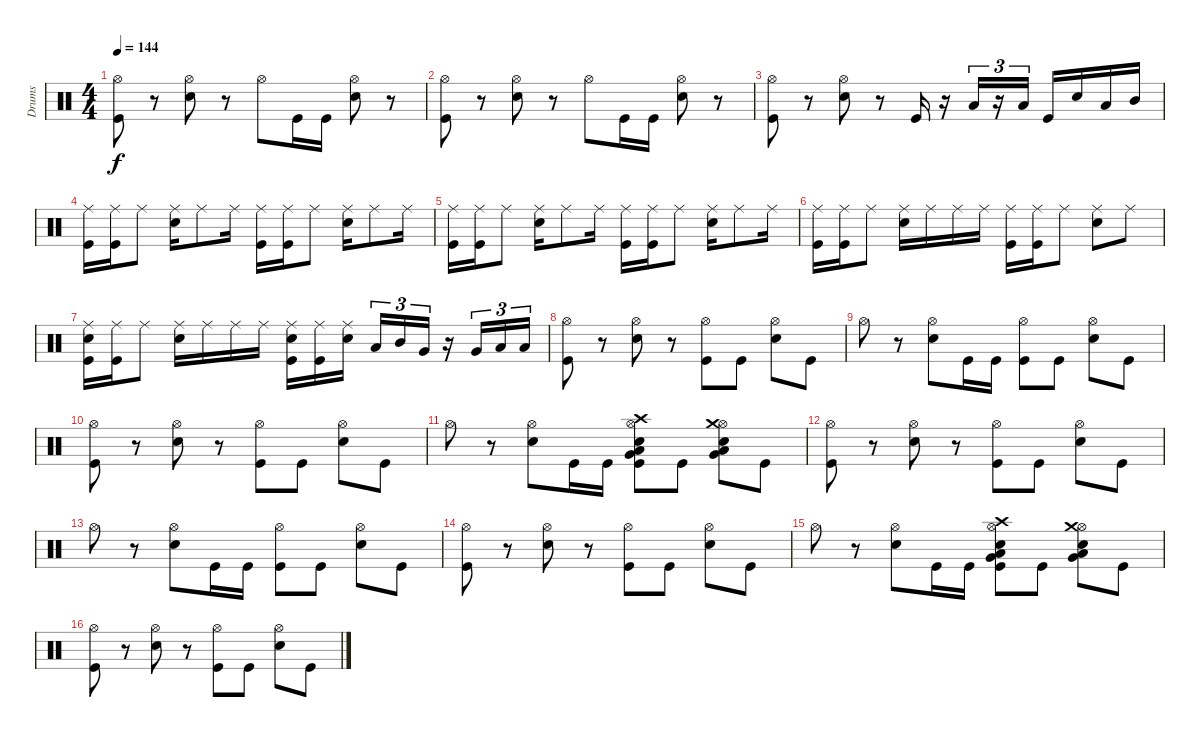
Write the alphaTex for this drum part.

\track ("Drums" "Drums") {instrument percussion}
\staff {score}
\articulation defaults
\ts (4 4)
\tempo 144
\clef neutral
\ks c
("Hi-Hat (open)" "Kick (hit)").8{dy f} r.8 ("Hi-Hat (open)" "Snare (hit) 2").8 r.8 "Hi-Hat (open)".8 "Kick (hit)".16 "Kick (hit)".16 ("Hi-Hat (open)" "Snare (hit) 2").8 r.8 |
("Hi-Hat (open)" "Kick (hit)").8 r.8 ("Hi-Hat (open)" "Snare (hit) 2").8 r.8 "Hi-Hat (open)".8 "Kick (hit)".16 "Kick (hit)".16 ("Hi-Hat (open)" "Snare (hit) 2").8 r.8 |
("Hi-Hat (open)" "Kick (hit)").8 r.8 ("Hi-Hat (open)" "Snare (hit) 2").8 r.8 "Kick (hit)".16 r.16 "Low Tom (hit)".16{tu (3 2)} r.16{tu (3 2)} "Low Floor Tom (hit)".16{tu (3 2)} "Kick (hit)".16 "Snare (hit) 2".16 "Low Tom (hit)".16 "Mid Tom (hit)".16 |
("Ride (middle)" "Kick (hit)").16 ("Ride (middle)" "Kick (hit)").16 "Ride (middle)".8 ("Ride (middle)" "Snare (hit) 2").16 "Ride (middle)".8 "Ride (middle)".16 ("Ride (middle)" "Kick (hit)").16 ("Ride (middle)" "Kick (hit)").16 "Ride (middle)".8 ("Ride (middle)" "Snare (hit) 2").16 "Ride (middle)".8 "Ride (middle)".16 |
("Ride (middle)" "Kick (hit)").16 ("Ride (middle)" "Kick (hit)").16 "Ride (middle)".8 ("Ride (middle)" "Snare (hit) 2").16 "Ride (middle)".8 "Ride (middle)".16 ("Ride (middle)" "Kick (hit)").16 ("Ride (middle)" "Kick (hit)").16 "Ride (middle)".8 ("Ride (middle)" "Snare (hit) 2").16 "Ride (middle)".8 "Ride (middle)".16 |
("Ride (middle)" "Kick (hit)").16 ("Ride (middle)" "Kick (hit)").16 "Ride (middle)".8 ("Ride (middle)" "Snare (hit) 2").16 "Ride (middle)".16 "Ride (middle)".16 "Ride (middle)".16 ("Ride (middle)" "Kick (hit)").16 ("Ride (middle)" "Kick (hit)").16 "Ride (middle)".8 ("Ride (middle)" "Snare (hit) 2").8 "Ride (middle)".8 |
("Ride (middle)" "Snare (hit) 2" "Kick (hit)").16 ("Ride (middle)" "Kick (hit)").16 "Ride (middle)".8 ("Ride (middle)" "Snare (hit) 2").16 "Ride (middle)".16 "Ride (middle)".16 "Ride (middle)".16 ("Ride (middle)" "Snare (hit) 2" "Kick (hit)").16 ("Ride (middle)" "Kick (hit)").16 ("Ride (middle)" "Snare (hit) 2").16 "Low Tom (hit)".16{tu (3 2)} "Mid Tom (hit)".16{tu (3 2)} "Very Low Tom (hit)".16{tu (3 2)} r.16 "Very Low Tom (hit)".16{tu (3 2)} "Low Tom (hit)".16{tu (3 2)} "Low Floor Tom (hit)".16{tu (3 2)} |
("Hi-Hat (open)" "Kick (hit)").8 r.8 ("Hi-Hat (open)" "Snare (hit) 2").8 r.8 ("Hi-Hat (open)" "Kick (hit)").8 "Kick (hit)".8 ("Hi-Hat (open)" "Snare (hit) 2").8 "Kick (hit)".8 |
"Hi-Hat (open)".8 r.8 ("Hi-Hat (open)" "Snare (hit) 2").8 "Kick (hit)".16 "Kick (hit)".16 ("Hi-Hat (open)" "Kick (hit)").8 "Kick (hit)".8 ("Hi-Hat (open)" "Snare (hit) 2").8 "Kick (hit)".8 |
("Hi-Hat (open)" "Kick (hit)").8 r.8 ("Hi-Hat (open)" "Snare (hit) 2").8 r.8 ("Hi-Hat (open)" "Kick (hit)").8 "Kick (hit)".8 ("Hi-Hat (open)" "Snare (hit) 2").8 "Kick (hit)".8 |
"Hi-Hat (open)".8 r.8 ("Hi-Hat (open)" "Snare (hit) 2").8 "Kick (hit)".16 "Kick (hit)".16 ("Hi-Hat (open)" "Crash high (hit)" "Low Tom (hit)" "Snare (hit) 2" "Very Low Tom (hit)" "Kick (hit)").8 "Kick (hit)".8 ("Hi-Hat (open)" "Crash medium (hit)" "Low Tom (hit)" "Snare (hit) 2" "Very Low Tom (hit)").8 "Kick (hit)".8 |
("Hi-Hat (open)" "Kick (hit)").8 r.8 ("Hi-Hat (open)" "Snare (hit) 2").8 r.8 ("Hi-Hat (open)" "Kick (hit)").8 "Kick (hit)".8 ("Hi-Hat (open)" "Snare (hit) 2").8 "Kick (hit)".8 |
"Hi-Hat (open)".8 r.8 ("Hi-Hat (open)" "Snare (hit) 2").8 "Kick (hit)".16 "Kick (hit)".16 ("Hi-Hat (open)" "Kick (hit)").8 "Kick (hit)".8 ("Hi-Hat (open)" "Snare (hit) 2").8 "Kick (hit)".8 |
("Hi-Hat (open)" "Kick (hit)").8 r.8 ("Hi-Hat (open)" "Snare (hit) 2").8 r.8 ("Hi-Hat (open)" "Kick (hit)").8 "Kick (hit)".8 ("Hi-Hat (open)" "Snare (hit) 2").8 "Kick (hit)".8 |
"Hi-Hat (open)".8 r.8 ("Hi-Hat (open)" "Snare (hit) 2").8 "Kick (hit)".16 "Kick (hit)".16 ("Hi-Hat (open)" "Crash high (hit)" "Low Tom (hit)" "Snare (hit) 2" "Very Low Tom (hit)" "Kick (hit)").8 "Kick (hit)".8 ("Hi-Hat (open)" "Crash medium (hit)" "Low Tom (hit)" "Snare (hit) 2" "Very Low Tom (hit)").8 "Kick (hit)".8 |
("Hi-Hat (open)" "Kick (hit)").8 r.8 ("Hi-Hat (open)" "Snare (hit) 2").8 r.8 ("Hi-Hat (open)" "Kick (hit)").8 "Kick (hit)".8 ("Hi-Hat (open)" "Snare (hit) 2").8 "Kick (hit)".8
